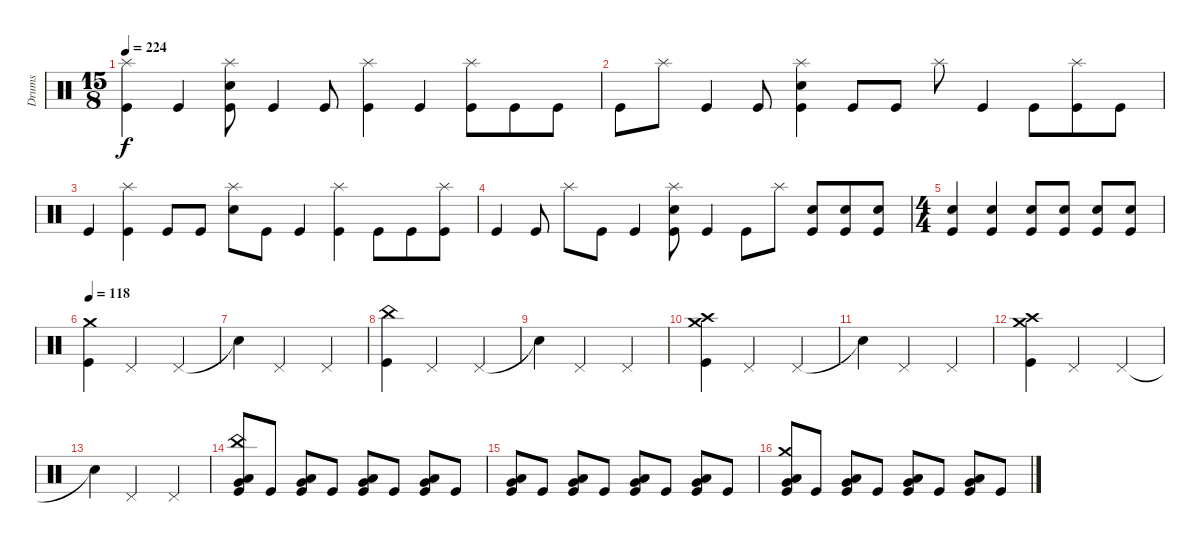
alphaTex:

\track ("Drums" "Drums") {instrument percussion}
\staff {score}
\articulation defaults
\ts (15 8)
\tempo 224
\clef neutral
\ks c
("Splash (hit)" "Kick (hit)").4{dy f} "Kick (hit)".4 ("Splash (hit)" "Snare (hit) 2" "Kick (hit)").8 "Kick (hit)".4 "Kick (hit)".8 ("Splash (hit)" "Kick (hit)").4 "Kick (hit)".4 ("Splash (hit)" "Kick (hit)").8 "Kick (hit)".8 "Kick (hit)".8 |
"Kick (hit)".8 "Splash (hit)".8 "Kick (hit)".4 "Kick (hit)".8 ("Splash (hit)" "Snare (hit) 2" "Kick (hit)").4 "Kick (hit)".8 "Kick (hit)".8 "Splash (hit)".8 "Kick (hit)".4 "Kick (hit)".8 ("Splash (hit)" "Kick (hit)").8 "Kick (hit)".8 |
"Kick (hit)".4 ("Splash (hit)" "Kick (hit)").4 "Kick (hit)".8 "Kick (hit)".8 ("Splash (hit)" "Snare (hit) 2").8 "Kick (hit)".8 "Kick (hit)".4 ("Splash (hit)" "Kick (hit)").4 "Kick (hit)".8 "Kick (hit)".8 ("Splash (hit)" "Kick (hit)").8 |
"Kick (hit)".4 "Kick (hit)".8 "Splash (hit)".8 "Kick (hit)".8 "Kick (hit)".4 ("Splash (hit)" "Snare (hit) 2" "Kick (hit)").8 "Kick (hit)".4 "Kick (hit)".8 "Splash (hit)".8 ("Snare (hit) 2" "Kick (hit)").8 ("Snare (hit) 2" "Kick (hit)").8 ("Snare (hit) 2" "Kick (hit)").8 |
\ts (4 4)
("Snare (hit) 2" "Kick (hit)").4 ("Snare (hit) 2" "Kick (hit)").4 ("Snare (hit) 2" "Kick (hit)").8 ("Snare (hit) 2" "Kick (hit)").8 ("Snare (hit) 2" "Kick (hit)").8 ("Snare (hit) 2" "Kick (hit)").8 |
\tempo 118
("Crash medium (hit)" "Kick (hit)").4 "Pedal Hi-Hat (hit)".2 "Pedal Hi-Hat (hit)".4 |
"Snare (hit)"{t}.4 "Pedal Hi-Hat (hit)".2 "Pedal Hi-Hat (hit)".4 |
("China (hit)" "Kick (hit)").4 "Pedal Hi-Hat (hit)".2 "Pedal Hi-Hat (hit)".4 |
"Snare (hit)"{t}.4 "Pedal Hi-Hat (hit)".2 "Pedal Hi-Hat (hit)".4 |
("Crash high (hit)" "Crash medium (hit)" "Kick (hit)").4 "Pedal Hi-Hat (hit)".2 "Pedal Hi-Hat (hit)".4 |
"Snare (hit)"{t}.4 "Pedal Hi-Hat (hit)".2 "Pedal Hi-Hat (hit)".4 |
("Crash high (hit)" "Crash medium (hit)" "Kick (hit)").4 "Pedal Hi-Hat (hit)".2 "Pedal Hi-Hat (hit)".4 |
"Snare (hit)"{t}.4 "Pedal Hi-Hat (hit)".2 "Pedal Hi-Hat (hit)".4 |
("China (hit)" "Very Low Tom (hit)" "Low Floor Tom (hit)" "Kick (hit)").8 "Kick (hit)".8 ("Very Low Tom (hit)" "Low Floor Tom (hit)" "Kick (hit)").8 "Kick (hit)".8 ("Very Low Tom (hit)" "Low Floor Tom (hit)" "Kick (hit)").8 "Kick (hit)".8 ("Very Low Tom (hit)" "Low Floor Tom (hit)" "Kick (hit)").8 "Kick (hit)".8 |
("Very Low Tom (hit)" "Low Floor Tom (hit)" "Kick (hit)").8 "Kick (hit)".8 ("Very Low Tom (hit)" "Low Floor Tom (hit)" "Kick (hit)").8 "Kick (hit)".8 ("Very Low Tom (hit)" "Low Floor Tom (hit)" "Kick (hit)").8 "Kick (hit)".8 ("Very Low Tom (hit)" "Low Floor Tom (hit)" "Kick (hit)").8 "Kick (hit)".8 |
("Crash medium (hit)" "Very Low Tom (hit)" "Low Floor Tom (hit)" "Kick (hit)").8 "Kick (hit)".8 ("Very Low Tom (hit)" "Low Floor Tom (hit)" "Kick (hit)").8 "Kick (hit)".8 ("Very Low Tom (hit)" "Low Floor Tom (hit)" "Kick (hit)").8 "Kick (hit)".8 ("Very Low Tom (hit)" "Low Floor Tom (hit)" "Kick (hit)").8 "Kick (hit)".8
